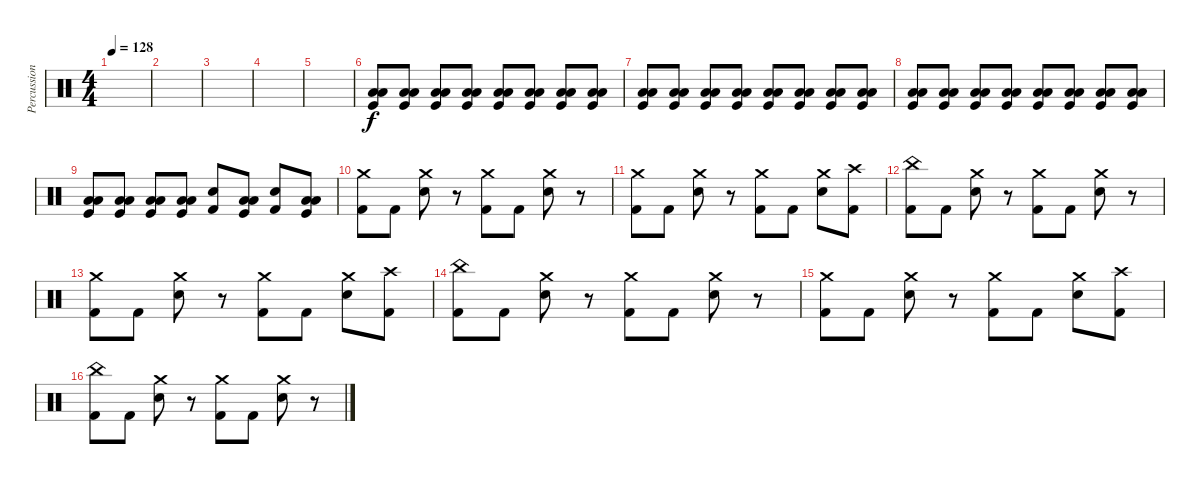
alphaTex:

\track ("Percussion" "Percussion") {instrument percussion}
\staff {score}
\articulation defaults
\ts (4 4)
\tempo 128
\clef neutral
\ks c
|
|
|
|
|
("Low Floor Tom (hit)" "Low Tom (hit)" "Kick (hit)").8 ("Low Floor Tom (hit)" "Low Tom (hit)" "Kick (hit)").8 ("Low Floor Tom (hit)" "Low Tom (hit)" "Kick (hit)").8 ("Low Floor Tom (hit)" "Low Tom (hit)" "Kick (hit)").8 ("Low Floor Tom (hit)" "Low Tom (hit)" "Kick (hit)").8 ("Low Floor Tom (hit)" "Low Tom (hit)" "Kick (hit)").8 ("Low Floor Tom (hit)" "Low Tom (hit)" "Kick (hit)").8 ("Low Floor Tom (hit)" "Low Tom (hit)" "Kick (hit)").8 |
("Low Floor Tom (hit)" "Low Tom (hit)" "Kick (hit)").8 ("Low Floor Tom (hit)" "Low Tom (hit)" "Kick (hit)").8 ("Low Floor Tom (hit)" "Low Tom (hit)" "Kick (hit)").8 ("Low Floor Tom (hit)" "Low Tom (hit)" "Kick (hit)").8 ("Low Floor Tom (hit)" "Low Tom (hit)" "Kick (hit)").8 ("Low Floor Tom (hit)" "Low Tom (hit)" "Kick (hit)").8 ("Low Floor Tom (hit)" "Low Tom (hit)" "Kick (hit)").8 ("Low Floor Tom (hit)" "Low Tom (hit)" "Kick (hit)").8 |
("Low Floor Tom (hit)" "Low Tom (hit)" "Kick (hit)").8 ("Low Floor Tom (hit)" "Low Tom (hit)" "Kick (hit)").8 ("Low Floor Tom (hit)" "Low Tom (hit)" "Kick (hit)").8 ("Low Floor Tom (hit)" "Low Tom (hit)" "Kick (hit)").8 ("Low Floor Tom (hit)" "Low Tom (hit)" "Kick (hit)").8 ("Low Floor Tom (hit)" "Low Tom (hit)" "Kick (hit)").8 ("Low Floor Tom (hit)" "Low Tom (hit)" "Kick (hit)").8 ("Low Floor Tom (hit)" "Low Tom (hit)" "Kick (hit)").8 |
("Low Floor Tom (hit)" "Low Tom (hit)" "Kick (hit)").8 ("Low Floor Tom (hit)" "Low Tom (hit)" "Kick (hit)").8 ("Low Floor Tom (hit)" "Low Tom (hit)" "Kick (hit)").8 ("Low Floor Tom (hit)" "Low Tom (hit)" "Kick (hit)").8 ("Snare (hit) 2" "Kick (hit) 2").8 ("Low Floor Tom (hit)" "Low Tom (hit)" "Kick (hit)").8 ("Snare (hit) 2" "Kick (hit) 2").8 ("Low Floor Tom (hit)" "Low Tom (hit)" "Kick (hit)").8 |
("Crash medium (hit)" "Kick (hit) 2").8 "Kick (hit) 2".8 ("Crash medium (hit)" "Snare (hit) 2").8 r.8 ("Crash medium (hit)" "Kick (hit) 2").8 "Kick (hit) 2".8 ("Crash medium (hit)" "Snare (hit) 2").8 r.8 |
("Crash medium (hit)" "Kick (hit) 2").8 "Kick (hit) 2".8 ("Crash medium (hit)" "Snare (hit) 2").8 r.8 ("Crash medium (hit)" "Kick (hit) 2").8 "Kick (hit) 2".8 ("Crash medium (hit)" "Snare (hit) 2").8 ("Crash high (hit)" "Kick (hit) 2").8 |
("China (hit)" "Kick (hit) 2").8 "Kick (hit) 2".8 ("Crash medium (hit)" "Snare (hit) 2").8 r.8 ("Crash medium (hit)" "Kick (hit) 2").8 "Kick (hit) 2".8 ("Crash medium (hit)" "Snare (hit) 2").8 r.8 |
("Crash medium (hit)" "Kick (hit) 2").8 "Kick (hit) 2".8 ("Crash medium (hit)" "Snare (hit) 2").8 r.8 ("Crash medium (hit)" "Kick (hit) 2").8 "Kick (hit) 2".8 ("Crash medium (hit)" "Snare (hit) 2").8 ("Crash high (hit)" "Kick (hit) 2").8 |
("China (hit)" "Kick (hit) 2").8 "Kick (hit) 2".8 ("Crash medium (hit)" "Snare (hit) 2").8 r.8 ("Crash medium (hit)" "Kick (hit) 2").8 "Kick (hit) 2".8 ("Crash medium (hit)" "Snare (hit) 2").8 r.8 |
("Crash medium (hit)" "Kick (hit) 2").8 "Kick (hit) 2".8 ("Crash medium (hit)" "Snare (hit) 2").8 r.8 ("Crash medium (hit)" "Kick (hit) 2").8 "Kick (hit) 2".8 ("Crash medium (hit)" "Snare (hit) 2").8 ("Crash high (hit)" "Kick (hit) 2").8 |
("China (hit)" "Kick (hit) 2").8 "Kick (hit) 2".8 ("Crash medium (hit)" "Snare (hit) 2").8 r.8 ("Crash medium (hit)" "Kick (hit) 2").8 "Kick (hit) 2".8 ("Crash medium (hit)" "Snare (hit) 2").8 r.8
